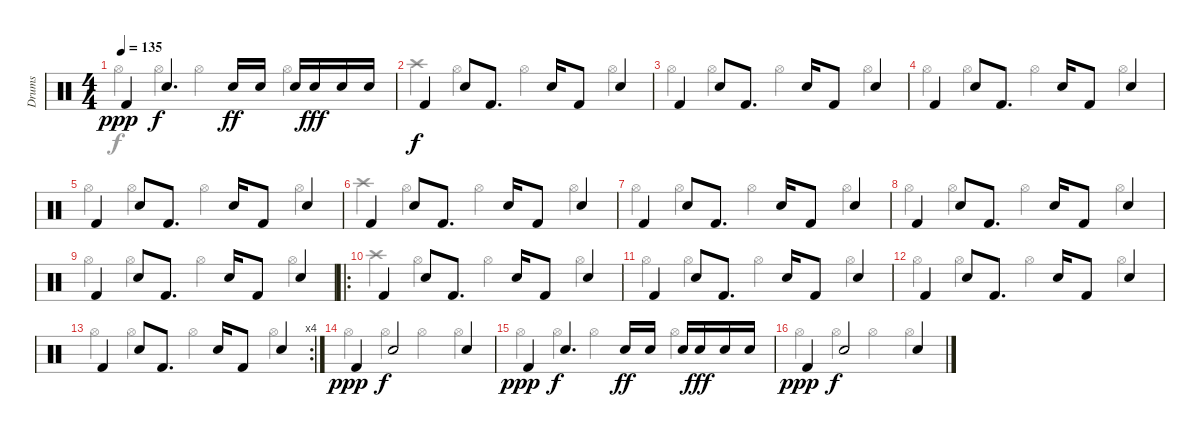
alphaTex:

\track ("Drums" "Drums") {instrument percussion}
\staff {score}
\articulation defaults
\voice
\ts (4 4)
\tempo 135
\clef neutral
\ks c "Kick (hit) 2".4{dy ppp} "Snare (hit) 2".4{d dy f} "Snare (hit) 2".16{dy ff} "Snare (hit) 2".16 "Snare (hit) 2".16 "Snare (hit) 2".16{dy fff} "Snare (hit) 2".16 "Snare (hit) 2".16
|
"Kick (hit) 2".4{dy f} "Snare (hit) 2".8 "Kick (hit) 2".8{d} "Snare (hit) 2".16 "Kick (hit) 2".8 "Snare (hit) 2".4 |
"Kick (hit) 2".4 "Snare (hit) 2".8 "Kick (hit) 2".8{d} "Snare (hit) 2".16 "Kick (hit) 2".8 "Snare (hit) 2".4 |
"Kick (hit) 2".4 "Snare (hit) 2".8 "Kick (hit) 2".8{d} "Snare (hit) 2".16 "Kick (hit) 2".8 "Snare (hit) 2".4 |
"Kick (hit) 2".4 "Snare (hit) 2".8 "Kick (hit) 2".8{d} "Snare (hit) 2".16 "Kick (hit) 2".8 "Snare (hit) 2".4 |
"Kick (hit) 2".4 "Snare (hit) 2".8 "Kick (hit) 2".8{d} "Snare (hit) 2".16 "Kick (hit) 2".8 "Snare (hit) 2".4 |
"Kick (hit) 2".4 "Snare (hit) 2".8 "Kick (hit) 2".8{d} "Snare (hit) 2".16 "Kick (hit) 2".8 "Snare (hit) 2".4 |
"Kick (hit) 2".4 "Snare (hit) 2".8 "Kick (hit) 2".8{d} "Snare (hit) 2".16 "Kick (hit) 2".8 "Snare (hit) 2".4 |
"Kick (hit) 2".4 "Snare (hit) 2".8 "Kick (hit) 2".8{d} "Snare (hit) 2".16 "Kick (hit) 2".8 "Snare (hit) 2".4 |
\ro "Kick (hit) 2".4 "Snare (hit) 2".8 "Kick (hit) 2".8{d} "Snare (hit) 2".16 "Kick (hit) 2".8 "Snare (hit) 2".4
|
"Kick (hit) 2".4 "Snare (hit) 2".8 "Kick (hit) 2".8{d} "Snare (hit) 2".16 "Kick (hit) 2".8 "Snare (hit) 2".4 |
"Kick (hit) 2".4 "Snare (hit) 2".8 "Kick (hit) 2".8{d} "Snare (hit) 2".16 "Kick (hit) 2".8 "Snare (hit) 2".4 |
\rc 4 "Kick (hit) 2".4 "Snare (hit) 2".8 "Kick (hit) 2".8{d} "Snare (hit) 2".16 "Kick (hit) 2".8 "Snare (hit) 2".4
|
"Kick (hit) 2".4{dy ppp} "Snare (hit) 2".2{dy f} "Snare (hit) 2".4 |
"Kick (hit) 2".4{dy ppp} "Snare (hit) 2".4{d dy f} "Snare (hit) 2".16{dy ff} "Snare (hit) 2".16 "Snare (hit) 2".16 "Snare (hit) 2".16{dy fff} "Snare (hit) 2".16 "Snare (hit) 2".16 |
"Kick (hit) 2".4{dy ppp} "Snare (hit) 2".2{dy f} "Snare (hit) 2".4
\voice
\clef neutral
\ottava regular
\simile none
\ks c "Hi-Hat (open)".4{dy f} "Hi-Hat (open)".4 "Hi-Hat (open)".4 "Hi-Hat (open)".4
|
"Crash high (hit)".4 "Hi-Hat (open)".4 "Hi-Hat (open)".4 "Hi-Hat (open)".4 |
"Hi-Hat (open)".4 "Hi-Hat (open)".4 "Hi-Hat (open)".4 "Hi-Hat (open)".4 |
"Hi-Hat (open)".4 "Hi-Hat (open)".4 "Hi-Hat (open)".4 "Hi-Hat (open)".4 |
"Hi-Hat (open)".4 "Hi-Hat (open)".4 "Hi-Hat (open)".4 "Hi-Hat (open)".4 |
"Crash high (hit)".4 "Hi-Hat (open)".4 "Hi-Hat (open)".4 "Hi-Hat (open)".4 |
"Hi-Hat (open)".4 "Hi-Hat (open)".4 "Hi-Hat (open)".4 "Hi-Hat (open)".4 |
"Hi-Hat (open)".4 "Hi-Hat (open)".4 "Hi-Hat (open)".4 "Hi-Hat (open)".4 |
"Hi-Hat (open)".4 "Hi-Hat (open)".4 "Hi-Hat (open)".4 "Hi-Hat (open)".4 |
"Crash high (hit)".4 "Hi-Hat (open)".4 "Hi-Hat (open)".4 "Hi-Hat (open)".4 |
"Hi-Hat (open)".4 "Hi-Hat (open)".4 "Hi-Hat (open)".4 "Hi-Hat (open)".4 |
"Hi-Hat (open)".4 "Hi-Hat (open)".4 "Hi-Hat (open)".4 "Hi-Hat (open)".4 |
"Hi-Hat (open)".4 "Hi-Hat (open)".4 "Hi-Hat (open)".4 "Hi-Hat (open)".4 |
"Hi-Hat (open)".4 "Hi-Hat (open)".4 "Hi-Hat (open)".4 "Hi-Hat (open)".4 |
"Hi-Hat (open)".4 "Hi-Hat (open)".4 "Hi-Hat (open)".4 "Hi-Hat (open)".4 |
"Hi-Hat (open)".4 "Hi-Hat (open)".4 "Hi-Hat (open)".4 "Hi-Hat (open)".4
